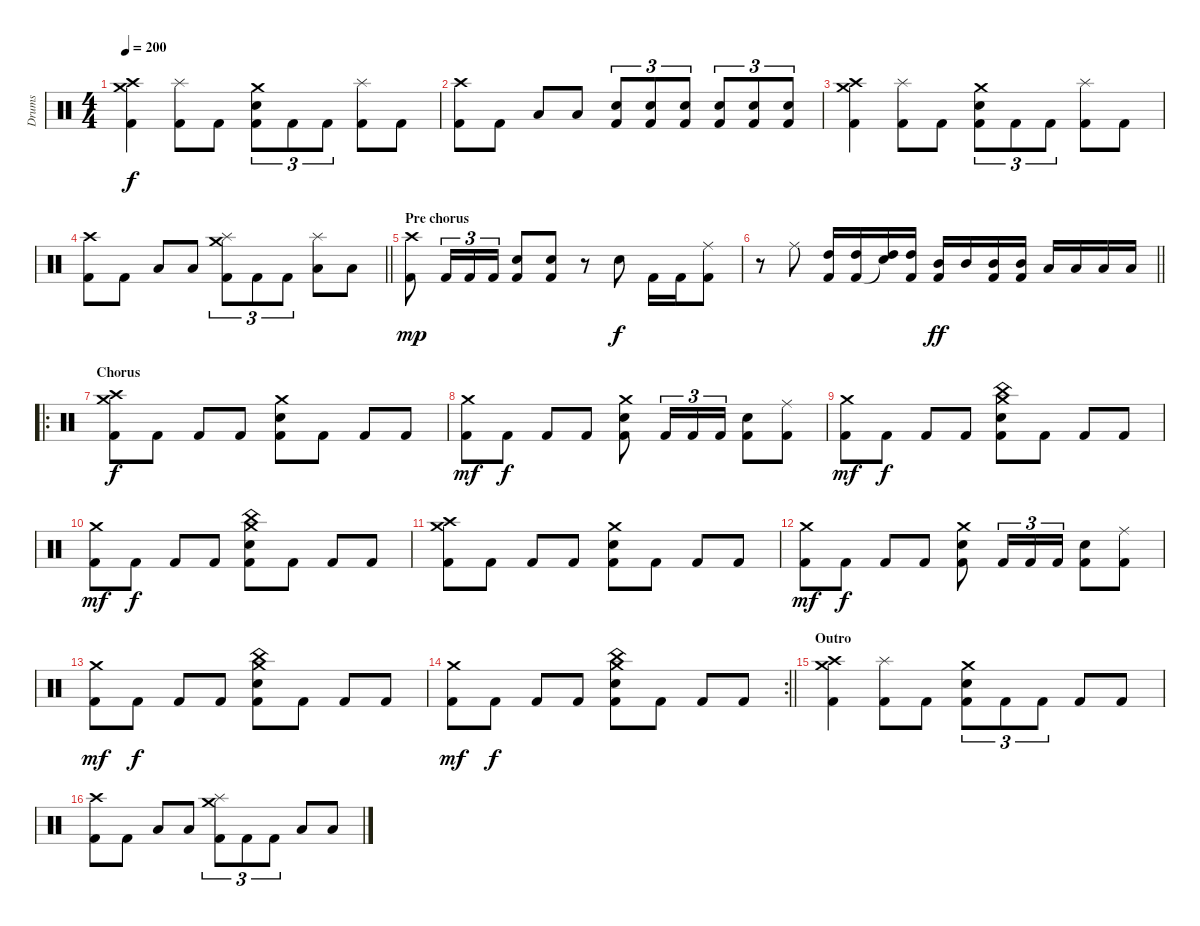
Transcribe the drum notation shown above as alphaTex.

\track ("Drums" "Drums") {instrument percussion}
\staff {score}
\articulation defaults
\ts (4 4)
\tempo 200
\clef neutral
\ks c
("Crash high (hit)" "Crash medium (hit)" "Kick (hit) 2").4{dy f} ("Splash (hit)" "Kick (hit) 2").8 "Kick (hit) 2".8 ("Crash medium (hit)" "Snare (hit) 2" "Kick (hit) 2").8{tu (3 2)} "Kick (hit) 2".8{tu (3 2)} "Kick (hit) 2".8{tu (3 2)} ("Splash (hit)" "Kick (hit) 2").8 "Kick (hit) 2".8 |
("Crash high (hit)" "Kick (hit) 2").8 "Kick (hit) 2".8 "Low Tom (hit)".8 "Low Tom (hit)".8 ("Snare (hit) 2" "Kick (hit) 2").8{tu (3 2)} ("Snare (hit) 2" "Kick (hit) 2").8{tu (3 2)} ("Snare (hit) 2" "Kick (hit) 2").8{tu (3 2)} ("Snare (hit) 2" "Kick (hit) 2").8{tu (3 2)} ("Snare (hit) 2" "Kick (hit) 2").8{tu (3 2)} ("Snare (hit) 2" "Kick (hit) 2").8{tu (3 2)} |
("Crash high (hit)" "Crash medium (hit)" "Kick (hit) 2").4 ("Splash (hit)" "Kick (hit) 2").8 "Kick (hit) 2".8 ("Crash medium (hit)" "Snare (hit) 2" "Kick (hit) 2").8{tu (3 2)} "Kick (hit) 2".8{tu (3 2)} "Kick (hit) 2".8{tu (3 2)} ("Splash (hit)" "Kick (hit) 2").8 "Kick (hit) 2".8 |
\barLineRight lightlight
("Crash high (hit)" "Kick (hit) 2").8 "Kick (hit) 2".8 "Low Tom (hit)".8 "Low Tom (hit)".8 ("Crash medium (hit)" "Splash (hit)" "Kick (hit) 2").8{tu (3 2)} "Kick (hit) 2".8{tu (3 2)} "Kick (hit) 2".8{tu (3 2)} ("Splash (hit)" "Low Tom (hit)").8 "Low Tom (hit)".8 |
\section ("" "Pre chorus")
("Crash high (hit)" "Kick (hit) 2").8{dy mp} "Kick (hit) 2".16{tu (3 2)} "Kick (hit) 2".16{tu (3 2)} "Kick (hit) 2".16{tu (3 2)} ("Snare (hit) 2" "Kick (hit) 2").8 ("Snare (hit) 2" "Kick (hit) 2").8 r.8 "Snare (hit) 2".8{dy f} "Kick (hit) 2".16 "Kick (hit) 2".16 ("Ride (middle)" "Kick (hit) 2").8 |
\barLineRight lightlight
r.8 "Ride (middle)".8 ("High Tom (hit)" "Kick (hit) 2").16 ("High Tom (hit)" "Kick (hit) 2").16 ("High Tom (hit)" "Snare (hit)"{t}).16 ("High Tom (hit)" "Kick (hit) 2").16 ("Mid Tom (hit)" "Kick (hit) 2").16{dy ff} "Mid Tom (hit)".16 ("Mid Tom (hit)" "Kick (hit) 2").16 ("Mid Tom (hit)" "Kick (hit) 2").16 "Low Tom (hit)".16 "Low Tom (hit)".16 "Low Tom (hit)".16 "Low Tom (hit)".16 |
\ro
\section ("" "Chorus")
("Crash high (hit)" "Crash medium (hit)" "Kick (hit) 2").8{dy f} "Kick (hit) 2".8 "Kick (hit) 2".8 "Kick (hit) 2".8 ("Crash medium (hit)" "Electric Snare (hit)" "Kick (hit) 2").8 "Kick (hit) 2".8 "Kick (hit) 2".8 "Kick (hit) 2".8 |
("Crash medium (hit)" "Kick (hit) 2").8{dy mf} "Kick (hit) 2".8{dy f} "Kick (hit) 2".8 "Kick (hit) 2".8 ("Crash medium (hit)" "Electric Snare (hit)" "Kick (hit) 2").8 "Kick (hit) 2".16{tu (3 2)} "Kick (hit) 2".16{tu (3 2)} "Kick (hit) 2".16{tu (3 2)} ("Snare (hit) 2" "Kick (hit) 2").8 ("Ride (middle)" "Kick (hit) 2").8 |
("Crash medium (hit)" "Kick (hit) 2").8{dy mf} "Kick (hit) 2".8{dy f} "Kick (hit) 2".8 "Kick (hit) 2".8 ("China (hit)" "Crash medium (hit)" "Electric Snare (hit)" "Kick (hit) 2").8 "Kick (hit) 2".8 "Kick (hit) 2".8 "Kick (hit) 2".8 |
("Crash medium (hit)" "Kick (hit) 2").8{dy mf} "Kick (hit) 2".8{dy f} "Kick (hit) 2".8 "Kick (hit) 2".8 ("China (hit)" "Crash medium (hit)" "Electric Snare (hit)" "Kick (hit) 2").8 "Kick (hit) 2".8 "Kick (hit) 2".8 "Kick (hit) 2".8 |
("Crash high (hit)" "Crash medium (hit)" "Kick (hit) 2").8 "Kick (hit) 2".8 "Kick (hit) 2".8 "Kick (hit) 2".8 ("Crash medium (hit)" "Electric Snare (hit)" "Kick (hit) 2").8 "Kick (hit) 2".8 "Kick (hit) 2".8 "Kick (hit) 2".8 |
("Crash medium (hit)" "Kick (hit) 2").8{dy mf} "Kick (hit) 2".8{dy f} "Kick (hit) 2".8 "Kick (hit) 2".8 ("Crash medium (hit)" "Electric Snare (hit)" "Kick (hit) 2").8 "Kick (hit) 2".16{tu (3 2)} "Kick (hit) 2".16{tu (3 2)} "Kick (hit) 2".16{tu (3 2)} ("Snare (hit) 2" "Kick (hit) 2").8 ("Ride (middle)" "Kick (hit) 2").8 |
("Crash medium (hit)" "Kick (hit) 2").8{dy mf} "Kick (hit) 2".8{dy f} "Kick (hit) 2".8 "Kick (hit) 2".8 ("China (hit)" "Crash medium (hit)" "Electric Snare (hit)" "Kick (hit) 2").8 "Kick (hit) 2".8 "Kick (hit) 2".8 "Kick (hit) 2".8 |
\rc 2
\barLineRight lightlight
("Crash medium (hit)" "Kick (hit) 2").8{dy mf} "Kick (hit) 2".8{dy f} "Kick (hit) 2".8 "Kick (hit) 2".8 ("China (hit)" "Crash medium (hit)" "Electric Snare (hit)" "Kick (hit) 2").8 "Kick (hit) 2".8 "Kick (hit) 2".8 "Kick (hit) 2".8 |
\section ("" "Outro")
("Crash high (hit)" "Crash medium (hit)" "Kick (hit) 2").4 ("Splash (hit)" "Kick (hit) 2").8 "Kick (hit) 2".8 ("Crash medium (hit)" "Snare (hit) 2" "Kick (hit) 2").8{tu (3 2)} "Kick (hit) 2".8{tu (3 2)} "Kick (hit) 2".8{tu (3 2)} "Kick (hit) 2".8 "Kick (hit) 2".8 |
("Crash high (hit)" "Kick (hit) 2").8 "Kick (hit) 2".8 "Low Tom (hit)".8 "Low Tom (hit)".8 ("Crash medium (hit)" "Splash (hit)" "Kick (hit) 2").8{tu (3 2)} "Kick (hit) 2".8{tu (3 2)} "Kick (hit) 2".8{tu (3 2)} "Low Tom (hit)".8 "Low Tom (hit)".8
